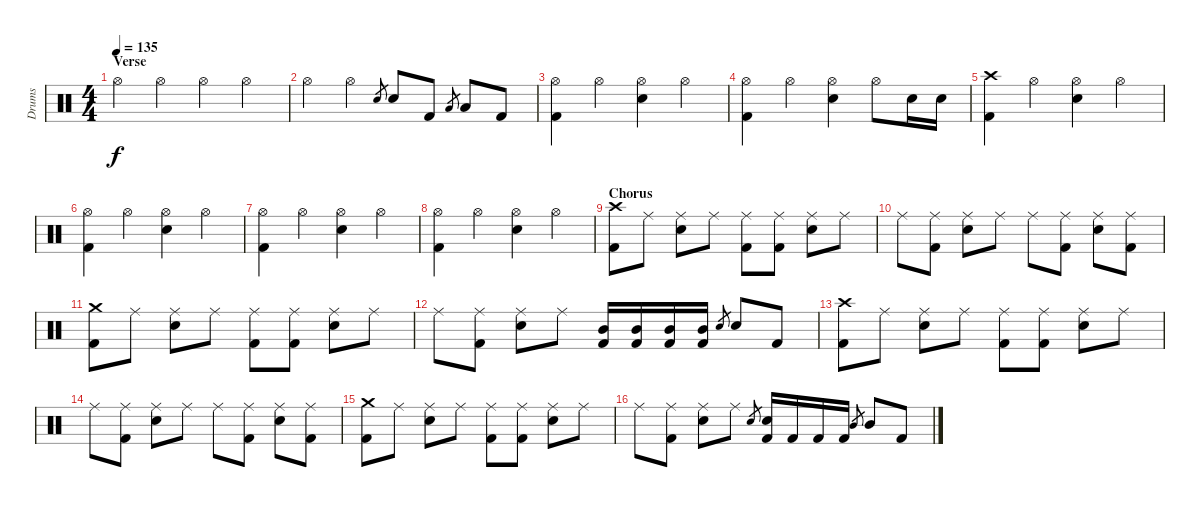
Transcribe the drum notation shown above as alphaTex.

\track ("Drums" "Drums") {instrument percussion}
\staff {score}
\articulation defaults
\ts (4 4)
\section ("" "Verse")
\tempo 135
\clef neutral
\ks c "Hi-Hat (open)".4{dy f} "Hi-Hat (open)".4 "Hi-Hat (open)".4 "Hi-Hat (open)".4
|
"Hi-Hat (open)".4 "Hi-Hat (open)".4 "Electric Snare (hit)".8{gr} "Electric Snare (hit)".8 "Kick (hit) 2".8 "Low Tom (hit)".8{gr} "Low Tom (hit)".8 "Kick (hit) 2".8 |
("Hi-Hat (open)" "Kick (hit) 2").4 "Hi-Hat (open)".4 ("Hi-Hat (open)" "Electric Snare (hit)").4 "Hi-Hat (open)".4 |
("Hi-Hat (open)" "Kick (hit) 2").4 "Hi-Hat (open)".4 ("Hi-Hat (open)" "Electric Snare (hit)").4 "Hi-Hat (open)".8 "Electric Snare (hit)".16 "Electric Snare (hit)".16 |
("Crash high (hit)" "Kick (hit) 2").4 "Hi-Hat (open)".4 ("Hi-Hat (open)" "Electric Snare (hit)").4 "Hi-Hat (open)".4 |
("Hi-Hat (open)" "Kick (hit) 2").4 "Hi-Hat (open)".4 ("Hi-Hat (open)" "Electric Snare (hit)").4 "Hi-Hat (open)".4 |
("Hi-Hat (open)" "Kick (hit) 2").4 "Hi-Hat (open)".4 ("Hi-Hat (open)" "Electric Snare (hit)").4 "Hi-Hat (open)".4 |
("Hi-Hat (open)" "Kick (hit) 2").4 "Hi-Hat (open)".4 ("Hi-Hat (open)" "Electric Snare (hit)").4 "Hi-Hat (open)".4 |
\section ("" "Chorus")
("Crash high (hit)" "Kick (hit) 2").8 "Ride (middle)".8 ("Ride (middle)" "Electric Snare (hit)").8 "Ride (middle)".8 ("Ride (middle)" "Kick (hit) 2").8 ("Ride (middle)" "Kick (hit) 2").8 ("Ride (middle)" "Electric Snare (hit)").8 "Ride (middle)".8 |
"Ride (middle)".8 ("Ride (middle)" "Kick (hit) 2").8 ("Ride (middle)" "Electric Snare (hit)").8 "Ride (middle)".8 "Ride (middle)".8 ("Ride (middle)" "Kick (hit) 2").8 ("Ride (middle)" "Electric Snare (hit)").8 ("Ride (middle)" "Kick (hit) 2").8 |
("Crash medium (hit)" "Kick (hit) 2").8 "Ride (middle)".8 ("Ride (middle)" "Electric Snare (hit)").8 "Ride (middle)".8 ("Ride (middle)" "Kick (hit) 2").8 ("Ride (middle)" "Kick (hit) 2").8 ("Ride (middle)" "Electric Snare (hit)").8 "Ride (middle)".8 |
"Ride (middle)".8 ("Ride (middle)" "Kick (hit) 2").8 ("Ride (middle)" "Electric Snare (hit)").8 "Ride (middle)".8 ("Mid Tom (hit)" "Kick (hit) 2").16 ("Mid Tom (hit)" "Kick (hit) 2").16 ("Mid Tom (hit)" "Kick (hit) 2").16 ("Mid Tom (hit)" "Kick (hit) 2").16 "Electric Snare (hit)".8{gr} "Electric Snare (hit)".8 "Kick (hit) 2".8 |
("Crash high (hit)" "Kick (hit) 2").8 "Ride (middle)".8 ("Ride (middle)" "Electric Snare (hit)").8 "Ride (middle)".8 ("Ride (middle)" "Kick (hit) 2").8 ("Ride (middle)" "Kick (hit) 2").8 ("Ride (middle)" "Electric Snare (hit)").8 "Ride (middle)".8 |
"Ride (middle)".8 ("Ride (middle)" "Kick (hit) 2").8 ("Ride (middle)" "Electric Snare (hit)").8 "Ride (middle)".8 "Ride (middle)".8 ("Ride (middle)" "Kick (hit) 2").8 ("Ride (middle)" "Electric Snare (hit)").8 ("Ride (middle)" "Kick (hit) 2").8 |
("Crash medium (hit)" "Kick (hit) 2").8 "Ride (middle)".8 ("Ride (middle)" "Electric Snare (hit)").8 "Ride (middle)".8 ("Ride (middle)" "Kick (hit) 2").8 ("Ride (middle)" "Kick (hit) 2").8 ("Ride (middle)" "Electric Snare (hit)").8 "Ride (middle)".8 |
"Ride (middle)".8 ("Ride (middle)" "Kick (hit) 2").8 ("Ride (middle)" "Electric Snare (hit)").8 "Ride (middle)".8 "Electric Snare (hit)".8{gr} ("Electric Snare (hit)" "Kick (hit) 2").16 "Kick (hit) 2".16 "Kick (hit) 2".16 "Kick (hit) 2".16 "Mid Tom (hit)".8{gr} "Mid Tom (hit)".8 "Kick (hit) 2".8
